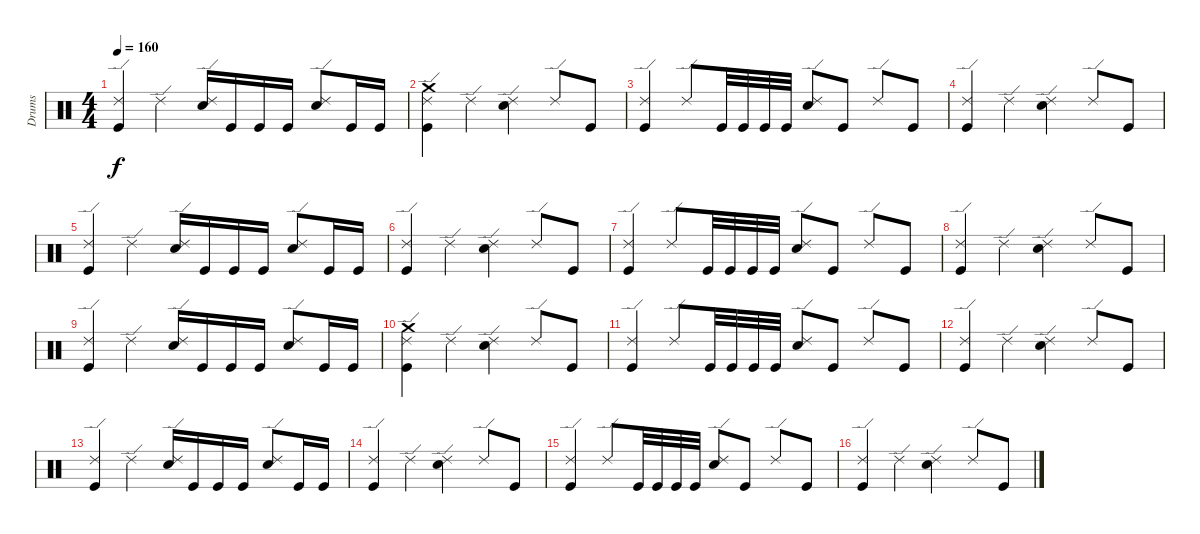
\track ("Drums" "Drums") {instrument percussion}
\staff {score}
\articulation defaults
\ts (4 4)
\tempo 160
\clef neutral
\ks c
("Ride (edge) 2" "Kick (hit)").4{dy f} "Ride (edge) 2".4 ("Ride (edge) 2" "Electric Snare (hit)").16 "Kick (hit)".16 "Kick (hit)".16 "Kick (hit)".16 ("Ride (edge) 2" "Electric Snare (hit)").8 "Kick (hit)".16 "Kick (hit)".16 |
("Crash medium (hit)" "Ride (edge) 2" "Kick (hit)").4 "Ride (edge) 2".4 ("Ride (edge) 2" "Electric Snare (hit)").4 "Ride (edge) 2".8 "Kick (hit)".8 |
("Ride (edge) 2" "Kick (hit)").4 "Ride (edge) 2".8 "Kick (hit)".32 "Kick (hit)".32 "Kick (hit)".32 "Kick (hit)".32 ("Ride (edge) 2" "Electric Snare (hit)").8 "Kick (hit)".8 "Ride (edge) 2".8 "Kick (hit)".8 |
("Ride (edge) 2" "Kick (hit)").4 "Ride (edge) 2".4 ("Ride (edge) 2" "Electric Snare (hit)").4 "Ride (edge) 2".8 "Kick (hit)".8 |
("Ride (edge) 2" "Kick (hit)").4 "Ride (edge) 2".4 ("Ride (edge) 2" "Electric Snare (hit)").16 "Kick (hit)".16 "Kick (hit)".16 "Kick (hit)".16 ("Ride (edge) 2" "Electric Snare (hit)").8 "Kick (hit)".16 "Kick (hit)".16 |
("Ride (edge) 2" "Kick (hit)").4 "Ride (edge) 2".4 ("Ride (edge) 2" "Electric Snare (hit)").4 "Ride (edge) 2".8 "Kick (hit)".8 |
("Ride (edge) 2" "Kick (hit)").4 "Ride (edge) 2".8 "Kick (hit)".32 "Kick (hit)".32 "Kick (hit)".32 "Kick (hit)".32 ("Ride (edge) 2" "Electric Snare (hit)").8 "Kick (hit)".8 "Ride (edge) 2".8 "Kick (hit)".8 |
("Ride (edge) 2" "Kick (hit)").4 "Ride (edge) 2".4 ("Ride (edge) 2" "Electric Snare (hit)").4 "Ride (edge) 2".8 "Kick (hit)".8 |
("Ride (edge) 2" "Kick (hit)").4 "Ride (edge) 2".4 ("Ride (edge) 2" "Electric Snare (hit)").16 "Kick (hit)".16 "Kick (hit)".16 "Kick (hit)".16 ("Ride (edge) 2" "Electric Snare (hit)").8 "Kick (hit)".16 "Kick (hit)".16 |
("Crash medium (hit)" "Ride (edge) 2" "Kick (hit)").4 "Ride (edge) 2".4 ("Ride (edge) 2" "Electric Snare (hit)").4 "Ride (edge) 2".8 "Kick (hit)".8 |
("Ride (edge) 2" "Kick (hit)").4 "Ride (edge) 2".8 "Kick (hit)".32 "Kick (hit)".32 "Kick (hit)".32 "Kick (hit)".32 ("Ride (edge) 2" "Electric Snare (hit)").8 "Kick (hit)".8 "Ride (edge) 2".8 "Kick (hit)".8 |
("Ride (edge) 2" "Kick (hit)").4 "Ride (edge) 2".4 ("Ride (edge) 2" "Electric Snare (hit)").4 "Ride (edge) 2".8 "Kick (hit)".8 |
("Ride (edge) 2" "Kick (hit)").4 "Ride (edge) 2".4 ("Ride (edge) 2" "Electric Snare (hit)").16 "Kick (hit)".16 "Kick (hit)".16 "Kick (hit)".16 ("Ride (edge) 2" "Electric Snare (hit)").8 "Kick (hit)".16 "Kick (hit)".16 |
("Ride (edge) 2" "Kick (hit)").4 "Ride (edge) 2".4 ("Ride (edge) 2" "Electric Snare (hit)").4 "Ride (edge) 2".8 "Kick (hit)".8 |
("Ride (edge) 2" "Kick (hit)").4 "Ride (edge) 2".8 "Kick (hit)".32 "Kick (hit)".32 "Kick (hit)".32 "Kick (hit)".32 ("Ride (edge) 2" "Electric Snare (hit)").8 "Kick (hit)".8 "Ride (edge) 2".8 "Kick (hit)".8 |
("Ride (edge) 2" "Kick (hit)").4 "Ride (edge) 2".4 ("Ride (edge) 2" "Electric Snare (hit)").4 "Ride (edge) 2".8 "Kick (hit)".8
